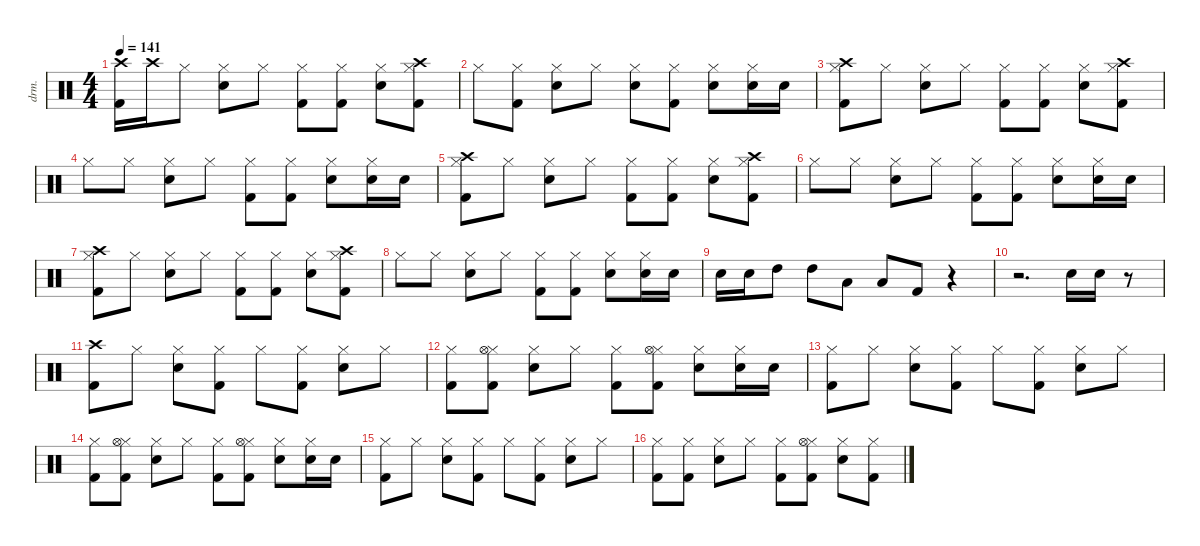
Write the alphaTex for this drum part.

\defaultSystemsLayout 4
\hideDynamics
\bracketExtendMode nobrackets
\otherSystemsTrackNameOrientation horizontal
\track ("Drum" "drm.") {instrument percussion}
\staff {score}
\articulation defaults
\ts (4 4)
\tempo 141
\clef neutral
\ks c
("Crash high (hit)" "Kick (hit) 2").16{dy fff beam Down} "Crash high (hit)".16{dy mf beam Down} "Hi-Hat (closed)".8{dy f beam Down} ("Hi-Hat (closed)" "Snare (hit) 2").8{dy fff beam Down} "Hi-Hat (closed)".8{dy f beam Down} ("Hi-Hat (closed)" "Kick (hit) 2").8{dy fff beam Down} ("Hi-Hat (closed)" "Kick (hit) 2").8{beam Down} ("Hi-Hat (closed)" "Snare (hit) 2").8{beam Down} ("Hi-Hat (closed)" "Kick (hit) 2" "Crash high (hit)").8{beam Down} |
"Hi-Hat (closed)".8{dy f beam Down} ("Kick (hit) 2" "Hi-Hat (closed)").8{dy fff beam Down} ("Snare (hit) 2" "Hi-Hat (closed)").8{beam Down} "Hi-Hat (closed)".8{dy f beam Down} ("Snare (hit) 2" "Hi-Hat (closed)").8{dy fff beam Down} ("Kick (hit) 2" "Hi-Hat (closed)").8{dy f beam Down} ("Snare (hit) 2" "Hi-Hat (closed)").8{dy fff beam Down} ("Snare (hit) 2" "Hi-Hat (closed)").16{beam Down} "Snare (hit) 2".16{beam Down} |
("Kick (hit) 2" "Hi-Hat (closed)" "Crash high (hit)").8{beam Down} "Hi-Hat (closed)".8{dy f beam Down} ("Snare (hit) 2" "Hi-Hat (closed)").8{dy fff beam Down} "Hi-Hat (closed)".8{dy f beam Down} ("Kick (hit) 2" "Hi-Hat (closed)").8{dy fff beam Down} ("Kick (hit) 2" "Hi-Hat (closed)").8{beam Down} ("Snare (hit) 2" "Hi-Hat (closed)").8{beam Down} ("Kick (hit) 2" "Hi-Hat (closed)" "Crash high (hit)").8{beam Down} |
"Hi-Hat (closed)".8{beam Down} "Hi-Hat (closed)".8{dy f beam Down} ("Hi-Hat (closed)" "Snare (hit) 2").8{dy fff beam Down} "Hi-Hat (closed)".8{dy f beam Down} ("Hi-Hat (closed)" "Kick (hit) 2").8{dy fff beam Down} ("Hi-Hat (closed)" "Kick (hit) 2").8{dy f beam Down} ("Hi-Hat (closed)" "Snare (hit) 2").8{dy fff beam Down} ("Hi-Hat (closed)" "Snare (hit) 2").16{beam Down} "Snare (hit) 2".16{dy f beam Down} |
("Kick (hit) 2" "Hi-Hat (closed)" "Crash high (hit)").8{dy fff beam Down} "Hi-Hat (closed)".8{dy f beam Down} ("Snare (hit) 2" "Hi-Hat (closed)").8{dy fff beam Down} "Hi-Hat (closed)".8{dy f beam Down} ("Kick (hit) 2" "Hi-Hat (closed)").8{dy fff beam Down} ("Kick (hit) 2" "Hi-Hat (closed)").8{beam Down} ("Snare (hit) 2" "Hi-Hat (closed)").8{beam Down} ("Kick (hit) 2" "Hi-Hat (closed)" "Crash high (hit)").8{beam Down} |
"Hi-Hat (closed)".8{beam Down} "Hi-Hat (closed)".8{dy f beam Down} ("Hi-Hat (closed)" "Snare (hit) 2").8{dy fff beam Down} "Hi-Hat (closed)".8{dy f beam Down} ("Hi-Hat (closed)" "Kick (hit) 2").8{dy fff beam Down} ("Hi-Hat (closed)" "Kick (hit) 2").8{beam Down} ("Hi-Hat (closed)" "Snare (hit) 2").8{beam Down} ("Hi-Hat (closed)" "Snare (hit) 2").16{beam Down} "Snare (hit) 2".16{dy f beam Down} |
("Kick (hit) 2" "Hi-Hat (closed)" "Crash high (hit)").8{dy fff beam Down} "Hi-Hat (closed)".8{dy f beam Down} ("Snare (hit) 2" "Hi-Hat (closed)").8{dy fff beam Down} "Hi-Hat (closed)".8{dy f beam Down} ("Kick (hit) 2" "Hi-Hat (closed)").8{dy fff beam Down} ("Kick (hit) 2" "Hi-Hat (closed)").8{beam Down} ("Snare (hit) 2" "Hi-Hat (closed)").8{beam Down} ("Kick (hit) 2" "Hi-Hat (closed)" "Crash high (hit)").8{beam Down} |
"Hi-Hat (closed)".8{dy f beam Down} "Hi-Hat (closed)".8{beam Down} ("Snare (hit) 2" "Hi-Hat (closed)").8{dy fff beam Down} "Hi-Hat (closed)".8{dy f beam Down} ("Kick (hit) 2" "Hi-Hat (closed)").8{dy fff beam Down} ("Kick (hit) 2" "Hi-Hat (closed)").8{beam Down} ("Snare (hit) 2" "Hi-Hat (closed)").8{beam Down} ("Snare (hit) 2" "Hi-Hat (closed)").16{beam Down} "Snare (hit) 2".16{beam Down} |
"Snare (hit) 2".16{beam Down} "Snare (hit) 2".16{beam Down} "High Tom (hit)".8{beam Down} "High Tom (hit)".8{beam Down} "Low Tom (hit)".8{beam Down} "Low Floor Tom (hit)".8{beam Up} "Kick (hit) 2".8{beam Up} r.4{beam Up} |
r.2{d beam Down} "Snare (hit) 2".16{beam Down} "Snare (hit) 2".16{beam Down} r.8{beam Down} |
("Crash high (hit)" "Kick (hit) 2").8{beam Down} "Hi-Hat (closed)".8{dy f beam Down} ("Hi-Hat (closed)" "Snare (hit) 2").8{dy fff beam Down} ("Hi-Hat (closed)" "Kick (hit) 2").8{dy f beam Down} "Hi-Hat (closed)".8{dy fff beam Down} ("Hi-Hat (closed)" "Kick (hit) 2").8{beam Down} ("Hi-Hat (closed)" "Snare (hit) 2").8{beam Down} "Hi-Hat (closed)".8{dy f beam Down} |
("Hi-Hat (closed)" "Kick (hit) 2").8{dy fff beam Down} ("Hi-Hat (closed)" "Kick (hit) 2" "Hi-Hat (open)").8{beam Down} ("Hi-Hat (closed)" "Snare (hit) 2").8{beam Down} "Hi-Hat (closed)".8{dy f beam Down} ("Hi-Hat (closed)" "Kick (hit) 2").8{dy fff beam Down} ("Hi-Hat (closed)" "Kick (hit) 2" "Hi-Hat (open)").8{beam Down} ("Hi-Hat (closed)" "Snare (hit) 2").8{beam Down} ("Hi-Hat (closed)" "Snare (hit) 2").16{dy f beam Down} "Snare (hit) 2".16{beam Down} |
("Hi-Hat (closed)" "Kick (hit) 2").8{dy fff beam Down} "Hi-Hat (closed)".8{dy f beam Down} ("Hi-Hat (closed)" "Snare (hit) 2").8{dy fff beam Down} ("Hi-Hat (closed)" "Kick (hit) 2").8{dy f beam Down} "Hi-Hat (closed)".8{dy fff beam Down} ("Hi-Hat (closed)" "Kick (hit) 2").8{beam Down} ("Hi-Hat (closed)" "Snare (hit) 2").8{beam Down} "Hi-Hat (closed)".8{dy f beam Down} |
("Hi-Hat (closed)" "Kick (hit) 2").8{dy fff beam Down} ("Hi-Hat (closed)" "Kick (hit) 2" "Hi-Hat (open)").8{beam Down} ("Hi-Hat (closed)" "Snare (hit) 2").8{beam Down} "Hi-Hat (closed)".8{dy f beam Down} ("Hi-Hat (closed)" "Kick (hit) 2").8{dy fff beam Down} ("Hi-Hat (closed)" "Kick (hit) 2" "Hi-Hat (open)").8{beam Down} ("Hi-Hat (closed)" "Snare (hit) 2").8{beam Down} ("Hi-Hat (closed)" "Snare (hit) 2").16{dy f beam Down} "Snare (hit) 2".16{beam Down} |
("Hi-Hat (closed)" "Kick (hit) 2").8{dy fff beam Down} "Hi-Hat (closed)".8{dy f beam Down} ("Hi-Hat (closed)" "Snare (hit) 2").8{dy fff beam Down} ("Hi-Hat (closed)" "Kick (hit) 2").8{dy f beam Down} "Hi-Hat (closed)".8{dy fff beam Down} ("Hi-Hat (closed)" "Kick (hit) 2").8{beam Down} ("Hi-Hat (closed)" "Snare (hit) 2").8{beam Down} "Hi-Hat (closed)".8{dy f beam Down} |
("Kick (hit) 2" "Hi-Hat (closed)").8{dy fff beam Down} ("Kick (hit) 2" "Hi-Hat (closed)").8{beam Down} ("Snare (hit) 2" "Hi-Hat (closed)").8{beam Down} "Hi-Hat (closed)".8{dy f beam Down} ("Kick (hit) 2" "Hi-Hat (closed)").8{dy fff beam Down} ("Kick (hit) 2" "Hi-Hat (closed)" "Hi-Hat (open)").8{beam Down} ("Snare (hit) 2" "Hi-Hat (closed)").8{beam Down} ("Kick (hit) 2" "Hi-Hat (closed)").8{dy f beam Down}
